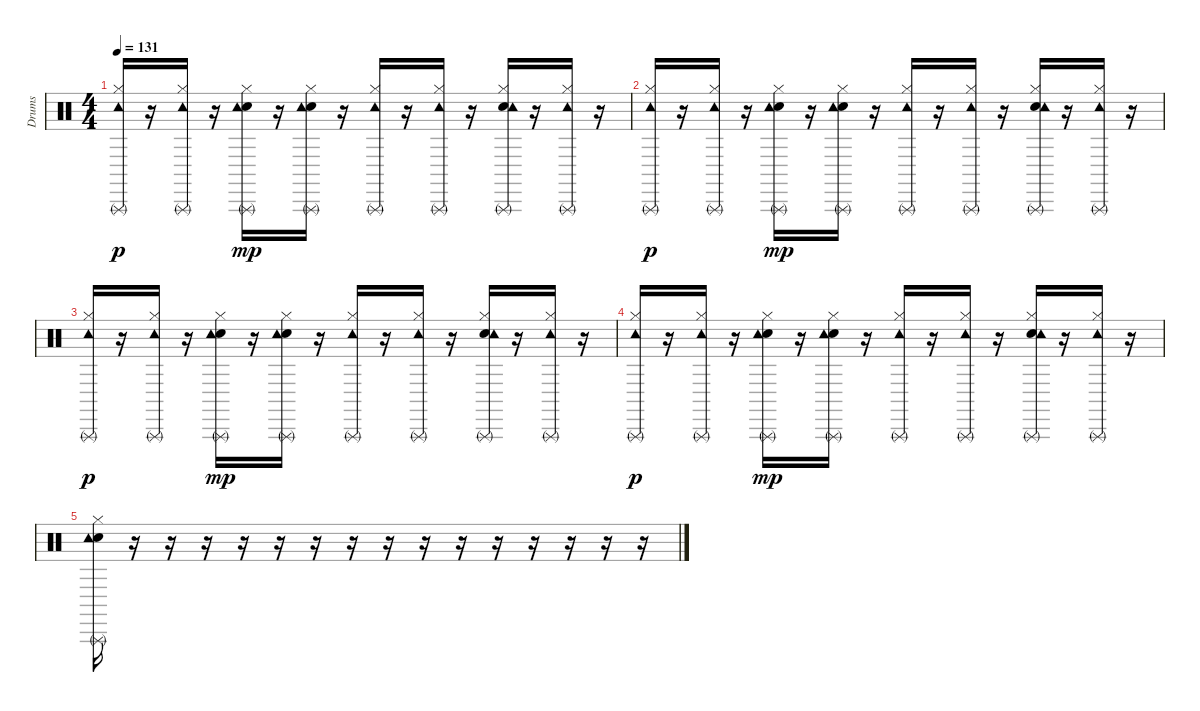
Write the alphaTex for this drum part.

\track ("Drums" "Drums") {instrument percussion}
\staff {score}
\articulation defaults
\ts (4 4)
\tempo 131
\clef neutral
\ks c
("Tambourine (hit)" "Hi-Hat (closed)" "Triangle (rnute)").16{dy p} r.16 ("Tambourine (hit)" "Hi-Hat (closed)" "Triangle (rnute)").16 r.16 ("Electric Snare (hit)" "Tambourine (hit)" "Hi-Hat (closed)" "Triangle (rnute)").16{dy mp} r.16 ("Electric Snare (hit)" "Tambourine (hit)" "Hi-Hat (closed)" "Triangle (rnute)").16 r.16 ("Tambourine (hit)" "Hi-Hat (closed)" "Triangle (rnute)").16 r.16 ("Tambourine (hit)" "Hi-Hat (closed)" "Triangle (rnute)").16 r.16 ("Electric Snare (hit)" "Tambourine (hit)" "Hi-Hat (closed)" "Triangle (rnute)").16 r.16 ("Tambourine (hit)" "Hi-Hat (closed)" "Triangle (rnute)").16 r.16 |
("Tambourine (hit)" "Hi-Hat (closed)" "Triangle (rnute)").16{dy p} r.16 ("Tambourine (hit)" "Hi-Hat (closed)" "Triangle (rnute)").16 r.16 ("Electric Snare (hit)" "Tambourine (hit)" "Hi-Hat (closed)" "Triangle (rnute)").16{dy mp} r.16 ("Electric Snare (hit)" "Tambourine (hit)" "Hi-Hat (closed)" "Triangle (rnute)").16 r.16 ("Tambourine (hit)" "Hi-Hat (closed)" "Triangle (rnute)").16 r.16 ("Tambourine (hit)" "Hi-Hat (closed)" "Triangle (rnute)").16 r.16 ("Electric Snare (hit)" "Tambourine (hit)" "Hi-Hat (closed)" "Triangle (rnute)").16 r.16 ("Tambourine (hit)" "Hi-Hat (closed)" "Triangle (rnute)").16 r.16 |
("Tambourine (hit)" "Hi-Hat (closed)" "Triangle (rnute)").16{dy p} r.16 ("Tambourine (hit)" "Hi-Hat (closed)" "Triangle (rnute)").16 r.16 ("Electric Snare (hit)" "Tambourine (hit)" "Hi-Hat (closed)" "Triangle (rnute)").16{dy mp} r.16 ("Electric Snare (hit)" "Tambourine (hit)" "Hi-Hat (closed)" "Triangle (rnute)").16 r.16 ("Tambourine (hit)" "Hi-Hat (closed)" "Triangle (rnute)").16 r.16 ("Tambourine (hit)" "Hi-Hat (closed)" "Triangle (rnute)").16 r.16 ("Electric Snare (hit)" "Tambourine (hit)" "Hi-Hat (closed)" "Triangle (rnute)").16 r.16 ("Tambourine (hit)" "Hi-Hat (closed)" "Triangle (rnute)").16 r.16 |
("Tambourine (hit)" "Hi-Hat (closed)" "Triangle (rnute)").16{dy p} r.16 ("Tambourine (hit)" "Hi-Hat (closed)" "Triangle (rnute)").16 r.16 ("Electric Snare (hit)" "Tambourine (hit)" "Hi-Hat (closed)" "Triangle (rnute)").16{dy mp} r.16 ("Electric Snare (hit)" "Tambourine (hit)" "Hi-Hat (closed)" "Triangle (rnute)").16 r.16 ("Tambourine (hit)" "Hi-Hat (closed)" "Triangle (rnute)").16 r.16 ("Tambourine (hit)" "Hi-Hat (closed)" "Triangle (rnute)").16 r.16 ("Electric Snare (hit)" "Tambourine (hit)" "Hi-Hat (closed)" "Triangle (rnute)").16 r.16 ("Tambourine (hit)" "Hi-Hat (closed)" "Triangle (rnute)").16 r.16 |
("Electric Snare (hit)" "Tambourine (hit)" "Hi-Hat (closed)" "Triangle (rnute)").16 r.16 r.16 r.16 r.16 r.16 r.16 r.16 r.16 r.16 r.16 r.16 r.16 r.16 r.16 r.16
